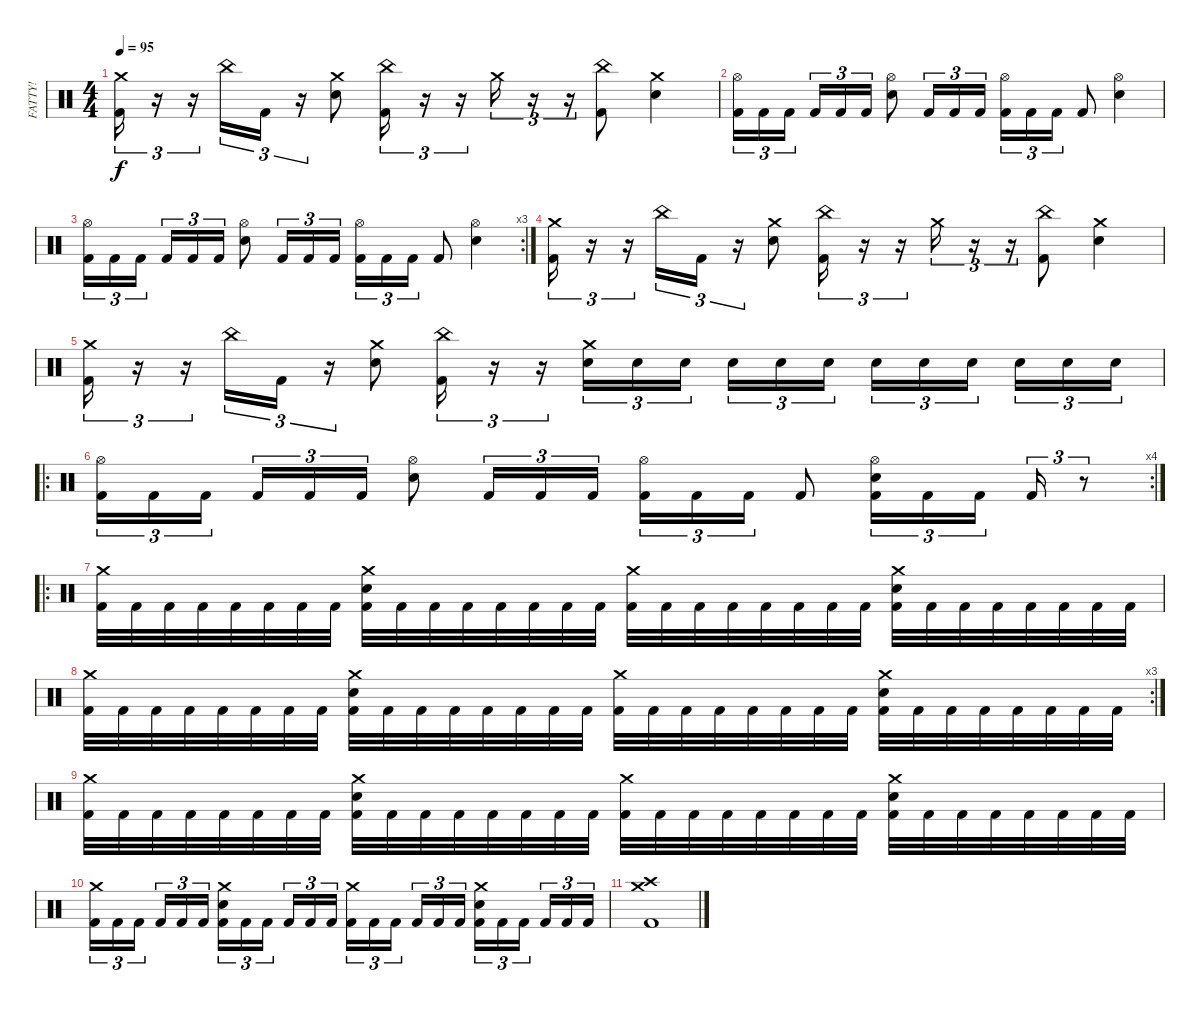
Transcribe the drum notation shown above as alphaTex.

\track ("FATTY!" "FATTY!") {instrument percussion}
\staff {score}
\articulation defaults
\ts (4 4)
\tempo 95
\clef neutral
\ks c
("Crash medium (hit)" "Kick (hit) 2").16{tu (3 2) dy f} r.16{tu (3 2)} r.16{tu (3 2)} "China (hit)".16{tu (3 2)} "Kick (hit) 2".16{tu (3 2)} r.16{tu (3 2)} ("Crash medium (hit)" "Electric Snare (hit)").8 ("China (hit)" "Kick (hit) 2").16{tu (3 2)} r.16{tu (3 2)} r.16{tu (3 2)} "Crash medium (hit)".16{tu (3 2)} r.16{tu (3 2)} r.16{tu (3 2)} ("China (hit)" "Kick (hit) 2").8 ("Crash medium (hit)" "Electric Snare (hit)").4 |
("Hi-Hat (open)" "Kick (hit) 2").16{tu (3 2)} "Kick (hit) 2".16{tu (3 2)} "Kick (hit) 2".16{tu (3 2) beam splitsecondary} "Kick (hit) 2".16{tu (3 2)} "Kick (hit) 2".16{tu (3 2)} "Kick (hit) 2".16{tu (3 2)} ("Hi-Hat (open)" "Electric Snare (hit)").8 "Kick (hit) 2".16{tu (3 2)} "Kick (hit) 2".16{tu (3 2)} "Kick (hit) 2".16{tu (3 2)} ("Hi-Hat (open)" "Kick (hit) 2").16{tu (3 2)} "Kick (hit) 2".16{tu (3 2)} "Kick (hit) 2".16{tu (3 2)} "Kick (hit) 2".8 ("Hi-Hat (open)" "Electric Snare (hit)").4 |
\rc 3
("Hi-Hat (open)" "Kick (hit) 2").16{tu (3 2)} "Kick (hit) 2".16{tu (3 2)} "Kick (hit) 2".16{tu (3 2) beam splitsecondary} "Kick (hit) 2".16{tu (3 2)} "Kick (hit) 2".16{tu (3 2)} "Kick (hit) 2".16{tu (3 2)} ("Hi-Hat (open)" "Electric Snare (hit)").8 "Kick (hit) 2".16{tu (3 2)} "Kick (hit) 2".16{tu (3 2)} "Kick (hit) 2".16{tu (3 2)} ("Hi-Hat (open)" "Kick (hit) 2").16{tu (3 2)} "Kick (hit) 2".16{tu (3 2)} "Kick (hit) 2".16{tu (3 2)} "Kick (hit) 2".8 ("Hi-Hat (open)" "Electric Snare (hit)").4 |
("Crash medium (hit)" "Kick (hit) 2").16{tu (3 2)} r.16{tu (3 2)} r.16{tu (3 2)} "China (hit)".16{tu (3 2)} "Kick (hit) 2".16{tu (3 2)} r.16{tu (3 2)} ("Crash medium (hit)" "Electric Snare (hit)").8 ("China (hit)" "Kick (hit) 2").16{tu (3 2)} r.16{tu (3 2)} r.16{tu (3 2)} "Crash medium (hit)".16{tu (3 2)} r.16{tu (3 2)} r.16{tu (3 2)} ("China (hit)" "Kick (hit) 2").8 ("Crash medium (hit)" "Electric Snare (hit)").4 |
("Crash medium (hit)" "Kick (hit) 2").16{tu (3 2)} r.16{tu (3 2)} r.16{tu (3 2)} "China (hit)".16{tu (3 2)} "Kick (hit) 2".16{tu (3 2)} r.16{tu (3 2)} ("Crash medium (hit)" "Electric Snare (hit)").8 ("China (hit)" "Kick (hit) 2").16{tu (3 2)} r.16{tu (3 2)} r.16{tu (3 2)} ("Crash medium (hit)" "Electric Snare (hit)").16{tu (3 2) volume 7} "Electric Snare (hit)".16{tu (3 2) volume 8} "Electric Snare (hit)".16{tu (3 2) volume 9 beam splitsecondary} "Electric Snare (hit)".16{tu (3 2) volume 10} "Electric Snare (hit)".16{tu (3 2) volume 11} "Electric Snare (hit)".16{tu (3 2) volume 12} "Electric Snare (hit)".16{tu (3 2) volume 13} "Electric Snare (hit)".16{tu (3 2)} "Electric Snare (hit)".16{tu (3 2) beam splitsecondary} "Electric Snare (hit)".16{tu (3 2)} "Electric Snare (hit)".16{tu (3 2)} "Electric Snare (hit)".16{tu (3 2)} |
\ro
\rc 4
("Hi-Hat (open)" "Kick (hit) 2").16{tu (3 2)} "Kick (hit) 2".16{tu (3 2)} "Kick (hit) 2".16{tu (3 2) beam splitsecondary} "Kick (hit) 2".16{tu (3 2)} "Kick (hit) 2".16{tu (3 2)} "Kick (hit) 2".16{tu (3 2)} ("Hi-Hat (open)" "Electric Snare (hit)").8 "Kick (hit) 2".16{tu (3 2)} "Kick (hit) 2".16{tu (3 2)} "Kick (hit) 2".16{tu (3 2)} ("Hi-Hat (open)" "Kick (hit) 2").16{tu (3 2)} "Kick (hit) 2".16{tu (3 2)} "Kick (hit) 2".16{tu (3 2)} "Kick (hit) 2".8 ("Hi-Hat (open)" "Electric Snare (hit)" "Kick (hit) 2").16{tu (3 2)} "Kick (hit) 2".16{tu (3 2)} "Kick (hit) 2".16{tu (3 2) beam splitsecondary} "Kick (hit) 2".16{tu (3 2)} r.8{tu (3 2)} |
\ro
("Crash medium (hit)" "Kick (hit) 2").32 "Kick (hit) 2".32 "Kick (hit) 2".32 "Kick (hit) 2".32 "Kick (hit) 2".32 "Kick (hit) 2".32 "Kick (hit) 2".32 "Kick (hit) 2".32 ("Crash medium (hit)" "Electric Snare (hit)" "Kick (hit) 2").32 "Kick (hit) 2".32 "Kick (hit) 2".32 "Kick (hit) 2".32 "Kick (hit) 2".32 "Kick (hit) 2".32 "Kick (hit) 2".32 "Kick (hit) 2".32 ("Crash medium (hit)" "Kick (hit) 2").32 "Kick (hit) 2".32 "Kick (hit) 2".32 "Kick (hit) 2".32 "Kick (hit) 2".32 "Kick (hit) 2".32 "Kick (hit) 2".32 "Kick (hit) 2".32 ("Crash medium (hit)" "Electric Snare (hit)" "Kick (hit) 2").32 "Kick (hit) 2".32 "Kick (hit) 2".32 "Kick (hit) 2".32 "Kick (hit) 2".32 "Kick (hit) 2".32 "Kick (hit) 2".32 "Kick (hit) 2".32 |
\rc 3
("Crash medium (hit)" "Kick (hit) 2").32 "Kick (hit) 2".32 "Kick (hit) 2".32 "Kick (hit) 2".32 "Kick (hit) 2".32 "Kick (hit) 2".32 "Kick (hit) 2".32 "Kick (hit) 2".32 ("Crash medium (hit)" "Electric Snare (hit)" "Kick (hit) 2").32 "Kick (hit) 2".32 "Kick (hit) 2".32 "Kick (hit) 2".32 "Kick (hit) 2".32 "Kick (hit) 2".32 "Kick (hit) 2".32 "Kick (hit) 2".32 ("Crash medium (hit)" "Kick (hit) 2").32 "Kick (hit) 2".32 "Kick (hit) 2".32 "Kick (hit) 2".32 "Kick (hit) 2".32 "Kick (hit) 2".32 "Kick (hit) 2".32 "Kick (hit) 2".32 ("Crash medium (hit)" "Electric Snare (hit)" "Kick (hit) 2").32 "Kick (hit) 2".32 "Kick (hit) 2".32 "Kick (hit) 2".32 "Kick (hit) 2".32 "Kick (hit) 2".32 "Kick (hit) 2".32 "Kick (hit) 2".32 |
("Crash medium (hit)" "Kick (hit) 2").32 "Kick (hit) 2".32 "Kick (hit) 2".32 "Kick (hit) 2".32 "Kick (hit) 2".32 "Kick (hit) 2".32 "Kick (hit) 2".32 "Kick (hit) 2".32 ("Crash medium (hit)" "Electric Snare (hit)" "Kick (hit) 2").32 "Kick (hit) 2".32 "Kick (hit) 2".32 "Kick (hit) 2".32 "Kick (hit) 2".32 "Kick (hit) 2".32 "Kick (hit) 2".32 "Kick (hit) 2".32 ("Crash medium (hit)" "Kick (hit) 2").32 "Kick (hit) 2".32 "Kick (hit) 2".32 "Kick (hit) 2".32 "Kick (hit) 2".32 "Kick (hit) 2".32 "Kick (hit) 2".32 "Kick (hit) 2".32 ("Crash medium (hit)" "Electric Snare (hit)" "Kick (hit) 2").32 "Kick (hit) 2".32 "Kick (hit) 2".32 "Kick (hit) 2".32 "Kick (hit) 2".32 "Kick (hit) 2".32 "Kick (hit) 2".32 "Kick (hit) 2".32 |
("Crash medium (hit)" "Kick (hit) 2").16{tu (3 2)} "Kick (hit) 2".16{tu (3 2)} "Kick (hit) 2".16{tu (3 2) beam splitsecondary} "Kick (hit) 2".16{tu (3 2)} "Kick (hit) 2".16{tu (3 2)} "Kick (hit) 2".16{tu (3 2)} ("Crash medium (hit)" "Electric Snare (hit)" "Kick (hit) 2").16{tu (3 2)} "Kick (hit) 2".16{tu (3 2)} "Kick (hit) 2".16{tu (3 2) beam splitsecondary} "Kick (hit) 2".16{tu (3 2)} "Kick (hit) 2".16{tu (3 2)} "Kick (hit) 2".16{tu (3 2)} ("Crash medium (hit)" "Kick (hit) 2").16{tu (3 2)} "Kick (hit) 2".16{tu (3 2)} "Kick (hit) 2".16{tu (3 2) beam splitsecondary} "Kick (hit) 2".16{tu (3 2)} "Kick (hit) 2".16{tu (3 2)} "Kick (hit) 2".16{tu (3 2)} ("Crash medium (hit)" "Electric Snare (hit)" "Kick (hit) 2").16{tu (3 2)} "Kick (hit) 2".16{tu (3 2)} "Kick (hit) 2".16{tu (3 2) beam splitsecondary} "Kick (hit) 2".16{tu (3 2)} "Kick (hit) 2".16{tu (3 2)} "Kick (hit) 2".16{tu (3 2)} |
("Crash medium (hit)" "Crash high (hit)" "Kick (hit) 2").1
